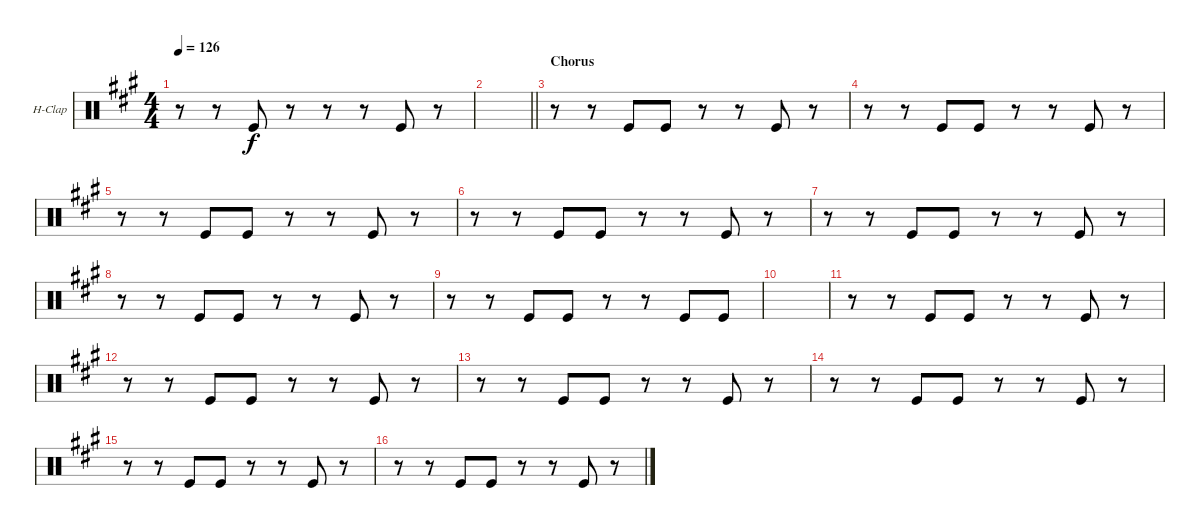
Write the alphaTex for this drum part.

\bracketExtendMode groupsimilarinstruments
\firstSystemTrackNameOrientation horizontal
\otherSystemsTrackNameOrientation horizontal
\track ("Hand Clap" "H-Clap") {instrument percussion}
\staff {score}
\articulation defaults
\ts (4 4)
\tempo 126
\clef neutral
\ks a
r.8{dy f} r.8 "Kick (hit)".8 r.8 r.8 r.8 "Kick (hit)".8 r.8 |
\barLineRight lightlight
|
\section ("" "Chorus")
r.8 r.8 "Kick (hit)".8 "Kick (hit)".8 r.8 r.8 "Kick (hit)".8 r.8 |
r.8 r.8 "Kick (hit)".8 "Kick (hit)".8 r.8 r.8 "Kick (hit)".8 r.8 |
r.8 r.8 "Kick (hit)".8 "Kick (hit)".8 r.8 r.8 "Kick (hit)".8 r.8 |
r.8 r.8 "Kick (hit)".8 "Kick (hit)".8 r.8 r.8 "Kick (hit)".8 r.8 |
r.8 r.8 "Kick (hit)".8 "Kick (hit)".8 r.8 r.8 "Kick (hit)".8 r.8 |
r.8 r.8 "Kick (hit)".8 "Kick (hit)".8 r.8 r.8 "Kick (hit)".8 r.8 |
r.8 r.8 "Kick (hit)".8 "Kick (hit)".8 r.8 r.8 "Kick (hit)".8 "Kick (hit)".8 |
|
r.8 r.8 "Kick (hit)".8 "Kick (hit)".8 r.8 r.8 "Kick (hit)".8 r.8 |
r.8 r.8 "Kick (hit)".8 "Kick (hit)".8 r.8 r.8 "Kick (hit)".8 r.8 |
r.8 r.8 "Kick (hit)".8 "Kick (hit)".8 r.8 r.8 "Kick (hit)".8 r.8 |
r.8 r.8 "Kick (hit)".8 "Kick (hit)".8 r.8 r.8 "Kick (hit)".8 r.8 |
r.8 r.8 "Kick (hit)".8 "Kick (hit)".8 r.8 r.8 "Kick (hit)".8 r.8 |
r.8 r.8 "Kick (hit)".8 "Kick (hit)".8 r.8 r.8 "Kick (hit)".8 r.8
